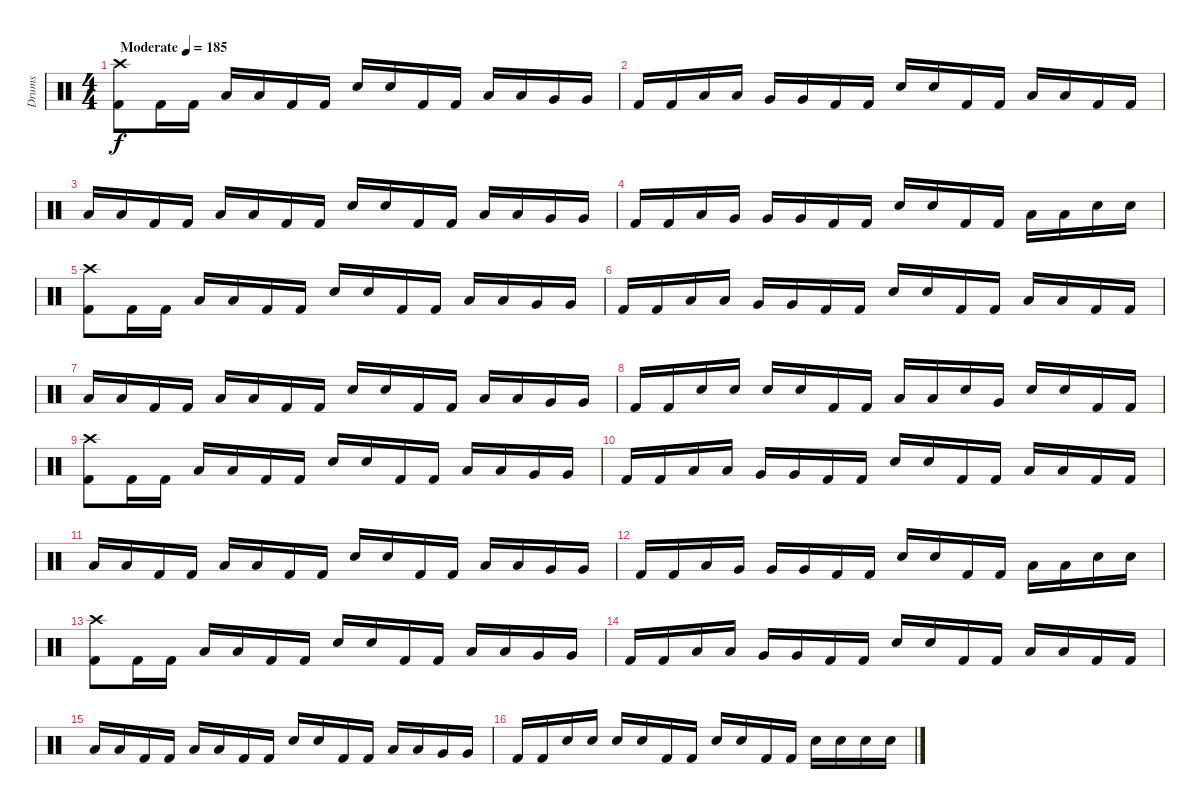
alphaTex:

\track ("Drums" "Drums") {instrument percussion}
\staff {score}
\articulation defaults
\ts (4 4)
\tempo (185 "Moderate")
\clef neutral
\ks c
("Crash high (hit)" "Kick (hit) 2").8{dy f} "Kick (hit) 2".16 "Kick (hit) 2".16 "Low Tom (hit)".16 "Low Tom (hit)".16 "Kick (hit) 2".16 "Kick (hit) 2".16 "Electric Snare (hit)".16 "Electric Snare (hit)".16 "Kick (hit) 2".16 "Kick (hit) 2".16 "Low Tom (hit)".16 "Low Tom (hit)".16 "Very Low Tom (hit)".16 "Very Low Tom (hit)".16 |
"Kick (hit) 2".16 "Kick (hit) 2".16 "Low Tom (hit)".16 "Low Tom (hit)".16 "Very Low Tom (hit)".16 "Very Low Tom (hit)".16 "Kick (hit) 2".16 "Kick (hit) 2".16 "Electric Snare (hit)".16 "Electric Snare (hit)".16 "Kick (hit) 2".16 "Kick (hit) 2".16 "Low Tom (hit)".16 "Low Tom (hit)".16 "Kick (hit) 2".16 "Kick (hit) 2".16 |
"Low Tom (hit)".16 "Low Tom (hit)".16 "Kick (hit) 2".16 "Kick (hit) 2".16 "Low Tom (hit)".16 "Low Tom (hit)".16 "Kick (hit) 2".16 "Kick (hit) 2".16 "Electric Snare (hit)".16 "Electric Snare (hit)".16 "Kick (hit) 2".16 "Kick (hit) 2".16 "Low Tom (hit)".16 "Low Tom (hit)".16 "Very Low Tom (hit)".16 "Very Low Tom (hit)".16 |
"Kick (hit) 2".16 "Kick (hit) 2".16 "Low Tom (hit)".16 "Very Low Tom (hit)".16 "Very Low Tom (hit)".16 "Very Low Tom (hit)".16 "Kick (hit) 2".16 "Kick (hit) 2".16 "Electric Snare (hit)".16 "Electric Snare (hit)".16 "Kick (hit) 2".16 "Kick (hit) 2".16 "Low Tom (hit)".16 "Low Tom (hit)".16 "Electric Snare (hit)".16 "Electric Snare (hit)".16 |
("Crash high (hit)" "Kick (hit) 2").8 "Kick (hit) 2".16 "Kick (hit) 2".16 "Low Tom (hit)".16 "Low Tom (hit)".16 "Kick (hit) 2".16 "Kick (hit) 2".16 "Electric Snare (hit)".16 "Electric Snare (hit)".16 "Kick (hit) 2".16 "Kick (hit) 2".16 "Low Tom (hit)".16 "Low Tom (hit)".16 "Very Low Tom (hit)".16 "Very Low Tom (hit)".16 |
"Kick (hit) 2".16 "Kick (hit) 2".16 "Low Tom (hit)".16 "Low Tom (hit)".16 "Very Low Tom (hit)".16 "Very Low Tom (hit)".16 "Kick (hit) 2".16 "Kick (hit) 2".16 "Electric Snare (hit)".16 "Electric Snare (hit)".16 "Kick (hit) 2".16 "Kick (hit) 2".16 "Low Tom (hit)".16 "Low Tom (hit)".16 "Kick (hit) 2".16 "Kick (hit) 2".16 |
"Low Tom (hit)".16 "Low Tom (hit)".16 "Kick (hit) 2".16 "Kick (hit) 2".16 "Low Tom (hit)".16 "Low Tom (hit)".16 "Kick (hit) 2".16 "Kick (hit) 2".16 "Electric Snare (hit)".16 "Electric Snare (hit)".16 "Kick (hit) 2".16 "Kick (hit) 2".16 "Low Tom (hit)".16 "Low Tom (hit)".16 "Very Low Tom (hit)".16 "Very Low Tom (hit)".16 |
"Kick (hit) 2".16 "Kick (hit) 2".16 "Electric Snare (hit)".16 "Electric Snare (hit)".16 "Electric Snare (hit)".16 "Electric Snare (hit)".16 "Kick (hit) 2".16 "Kick (hit) 2".16 "Low Tom (hit)".16 "Low Tom (hit)".16 "Electric Snare (hit)".16 "Very Low Tom (hit)".16 "Electric Snare (hit)".16 "Electric Snare (hit)".16 "Kick (hit) 2".16 "Kick (hit) 2".16 |
("Crash high (hit)" "Kick (hit) 2").8 "Kick (hit) 2".16 "Kick (hit) 2".16 "Low Tom (hit)".16 "Low Tom (hit)".16 "Kick (hit) 2".16 "Kick (hit) 2".16 "Electric Snare (hit)".16 "Electric Snare (hit)".16 "Kick (hit) 2".16 "Kick (hit) 2".16 "Low Tom (hit)".16 "Low Tom (hit)".16 "Very Low Tom (hit)".16 "Very Low Tom (hit)".16 |
"Kick (hit) 2".16 "Kick (hit) 2".16 "Low Tom (hit)".16 "Low Tom (hit)".16 "Very Low Tom (hit)".16 "Very Low Tom (hit)".16 "Kick (hit) 2".16 "Kick (hit) 2".16 "Electric Snare (hit)".16 "Electric Snare (hit)".16 "Kick (hit) 2".16 "Kick (hit) 2".16 "Low Tom (hit)".16 "Low Tom (hit)".16 "Kick (hit) 2".16 "Kick (hit) 2".16 |
"Low Tom (hit)".16 "Low Tom (hit)".16 "Kick (hit) 2".16 "Kick (hit) 2".16 "Low Tom (hit)".16 "Low Tom (hit)".16 "Kick (hit) 2".16 "Kick (hit) 2".16 "Electric Snare (hit)".16 "Electric Snare (hit)".16 "Kick (hit) 2".16 "Kick (hit) 2".16 "Low Tom (hit)".16 "Low Tom (hit)".16 "Very Low Tom (hit)".16 "Very Low Tom (hit)".16 |
"Kick (hit) 2".16 "Kick (hit) 2".16 "Low Tom (hit)".16 "Very Low Tom (hit)".16 "Very Low Tom (hit)".16 "Very Low Tom (hit)".16 "Kick (hit) 2".16 "Kick (hit) 2".16 "Electric Snare (hit)".16 "Electric Snare (hit)".16 "Kick (hit) 2".16 "Kick (hit) 2".16 "Low Tom (hit)".16 "Low Tom (hit)".16 "Electric Snare (hit)".16 "Electric Snare (hit)".16 |
("Crash high (hit)" "Kick (hit) 2").8 "Kick (hit) 2".16 "Kick (hit) 2".16 "Low Tom (hit)".16 "Low Tom (hit)".16 "Kick (hit) 2".16 "Kick (hit) 2".16 "Electric Snare (hit)".16 "Electric Snare (hit)".16 "Kick (hit) 2".16 "Kick (hit) 2".16 "Low Tom (hit)".16 "Low Tom (hit)".16 "Very Low Tom (hit)".16 "Very Low Tom (hit)".16 |
"Kick (hit) 2".16 "Kick (hit) 2".16 "Low Tom (hit)".16 "Low Tom (hit)".16 "Very Low Tom (hit)".16 "Very Low Tom (hit)".16 "Kick (hit) 2".16 "Kick (hit) 2".16 "Electric Snare (hit)".16 "Electric Snare (hit)".16 "Kick (hit) 2".16 "Kick (hit) 2".16 "Low Tom (hit)".16 "Low Tom (hit)".16 "Kick (hit) 2".16 "Kick (hit) 2".16 |
"Low Tom (hit)".16 "Low Tom (hit)".16 "Kick (hit) 2".16 "Kick (hit) 2".16 "Low Tom (hit)".16 "Low Tom (hit)".16 "Kick (hit) 2".16 "Kick (hit) 2".16 "Electric Snare (hit)".16 "Electric Snare (hit)".16 "Kick (hit) 2".16 "Kick (hit) 2".16 "Low Tom (hit)".16 "Low Tom (hit)".16 "Very Low Tom (hit)".16 "Very Low Tom (hit)".16 |
"Kick (hit) 2".16 "Kick (hit) 2".16 "Electric Snare (hit)".16 "Electric Snare (hit)".16 "Electric Snare (hit)".16 "Electric Snare (hit)".16 "Kick (hit) 2".16 "Kick (hit) 2".16 "Electric Snare (hit)".16 "Electric Snare (hit)".16 "Kick (hit) 2".16 "Kick (hit) 2".16 "Electric Snare (hit)".16 "Electric Snare (hit)".16 "Electric Snare (hit)".16 "Electric Snare (hit)".16
